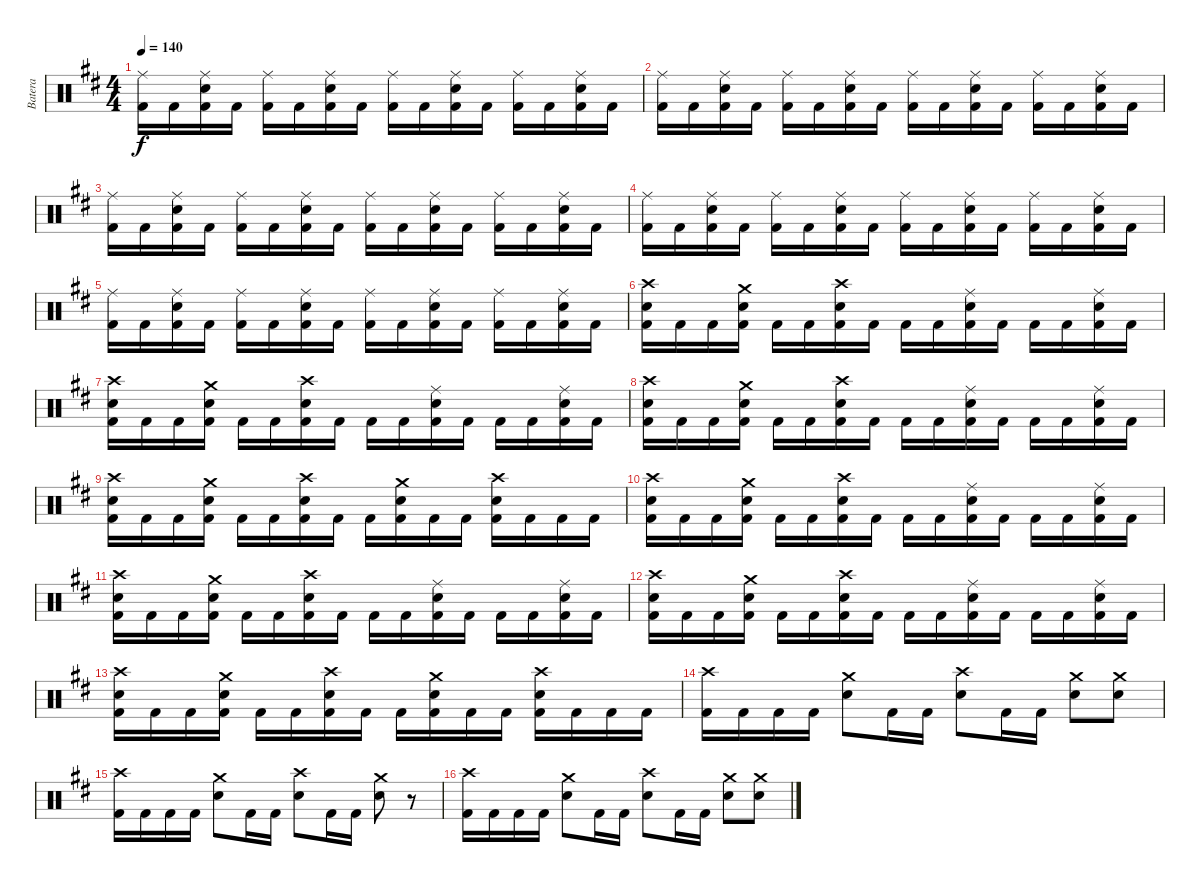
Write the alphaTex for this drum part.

\track ("Batera" "Batera") {instrument percussion}
\staff {score}
\articulation defaults
\ts (4 4)
\tempo 140
\clef neutral
\ks bminor
("Ride (middle)" "Kick (hit) 2").16{dy f} "Kick (hit) 2".16 ("Ride (middle)" "Electric Snare (hit)" "Kick (hit) 2").16 "Kick (hit) 2".16 ("Ride (middle)" "Kick (hit) 2").16 "Kick (hit) 2".16 ("Ride (middle)" "Electric Snare (hit)" "Kick (hit) 2").16 "Kick (hit) 2".16 ("Ride (middle)" "Kick (hit) 2").16 "Kick (hit) 2".16 ("Ride (middle)" "Electric Snare (hit)" "Kick (hit) 2").16 "Kick (hit) 2".16 ("Ride (middle)" "Kick (hit) 2").16 "Kick (hit) 2".16 ("Ride (middle)" "Electric Snare (hit)" "Kick (hit) 2").16 "Kick (hit) 2".16 |
("Ride (middle)" "Kick (hit) 2").16 "Kick (hit) 2".16 ("Ride (middle)" "Electric Snare (hit)" "Kick (hit) 2").16 "Kick (hit) 2".16 ("Ride (middle)" "Kick (hit) 2").16 "Kick (hit) 2".16 ("Ride (middle)" "Electric Snare (hit)" "Kick (hit) 2").16 "Kick (hit) 2".16 ("Ride (middle)" "Kick (hit) 2").16 "Kick (hit) 2".16 ("Ride (middle)" "Electric Snare (hit)" "Kick (hit) 2").16 "Kick (hit) 2".16 ("Ride (middle)" "Kick (hit) 2").16 "Kick (hit) 2".16 ("Ride (middle)" "Electric Snare (hit)" "Kick (hit) 2").16 "Kick (hit) 2".16 |
("Ride (middle)" "Kick (hit) 2").16 "Kick (hit) 2".16 ("Ride (middle)" "Electric Snare (hit)" "Kick (hit) 2").16 "Kick (hit) 2".16 ("Ride (middle)" "Kick (hit) 2").16 "Kick (hit) 2".16 ("Ride (middle)" "Electric Snare (hit)" "Kick (hit) 2").16 "Kick (hit) 2".16 ("Ride (middle)" "Kick (hit) 2").16 "Kick (hit) 2".16 ("Ride (middle)" "Electric Snare (hit)" "Kick (hit) 2").16 "Kick (hit) 2".16 ("Ride (middle)" "Kick (hit) 2").16 "Kick (hit) 2".16 ("Ride (middle)" "Electric Snare (hit)" "Kick (hit) 2").16 "Kick (hit) 2".16 |
("Ride (middle)" "Kick (hit) 2").16 "Kick (hit) 2".16 ("Ride (middle)" "Electric Snare (hit)" "Kick (hit) 2").16 "Kick (hit) 2".16 ("Ride (middle)" "Kick (hit) 2").16 "Kick (hit) 2".16 ("Ride (middle)" "Electric Snare (hit)" "Kick (hit) 2").16 "Kick (hit) 2".16 ("Ride (middle)" "Kick (hit) 2").16 "Kick (hit) 2".16 ("Ride (middle)" "Electric Snare (hit)" "Kick (hit) 2").16 "Kick (hit) 2".16 ("Ride (middle)" "Kick (hit) 2").16 "Kick (hit) 2".16 ("Ride (middle)" "Electric Snare (hit)" "Kick (hit) 2").16 "Kick (hit) 2".16 |
("Ride (middle)" "Kick (hit) 2").16 "Kick (hit) 2".16 ("Ride (middle)" "Electric Snare (hit)" "Kick (hit) 2").16 "Kick (hit) 2".16 ("Ride (middle)" "Kick (hit) 2").16 "Kick (hit) 2".16 ("Ride (middle)" "Electric Snare (hit)" "Kick (hit) 2").16 "Kick (hit) 2".16 ("Ride (middle)" "Kick (hit) 2").16 "Kick (hit) 2".16 ("Ride (middle)" "Electric Snare (hit)" "Kick (hit) 2").16 "Kick (hit) 2".16 ("Ride (middle)" "Kick (hit) 2").16 "Kick (hit) 2".16 ("Ride (middle)" "Electric Snare (hit)" "Kick (hit) 2").16 "Kick (hit) 2".16 |
("Crash high (hit)" "Electric Snare (hit)" "Kick (hit) 2").16 "Kick (hit) 2".16 "Kick (hit) 2".16 ("Crash medium (hit)" "Electric Snare (hit)" "Kick (hit) 2").16 "Kick (hit) 2".16 "Kick (hit) 2".16 ("Crash high (hit)" "Electric Snare (hit)" "Kick (hit) 2").16 "Kick (hit) 2".16 "Kick (hit) 2".16 "Kick (hit) 2".16 ("Ride (middle)" "Electric Snare (hit)" "Kick (hit) 2").16 "Kick (hit) 2".16 "Kick (hit) 2".16 "Kick (hit) 2".16 ("Ride (middle)" "Electric Snare (hit)" "Kick (hit) 2").16 "Kick (hit) 2".16 |
("Crash high (hit)" "Electric Snare (hit)" "Kick (hit) 2").16 "Kick (hit) 2".16 "Kick (hit) 2".16 ("Crash medium (hit)" "Electric Snare (hit)" "Kick (hit) 2").16 "Kick (hit) 2".16 "Kick (hit) 2".16 ("Crash high (hit)" "Electric Snare (hit)" "Kick (hit) 2").16 "Kick (hit) 2".16 "Kick (hit) 2".16 "Kick (hit) 2".16 ("Ride (middle)" "Electric Snare (hit)" "Kick (hit) 2").16 "Kick (hit) 2".16 "Kick (hit) 2".16 "Kick (hit) 2".16 ("Ride (middle)" "Electric Snare (hit)" "Kick (hit) 2").16 "Kick (hit) 2".16 |
("Crash high (hit)" "Electric Snare (hit)" "Kick (hit) 2").16 "Kick (hit) 2".16 "Kick (hit) 2".16 ("Crash medium (hit)" "Electric Snare (hit)" "Kick (hit) 2").16 "Kick (hit) 2".16 "Kick (hit) 2".16 ("Crash high (hit)" "Electric Snare (hit)" "Kick (hit) 2").16 "Kick (hit) 2".16 "Kick (hit) 2".16 "Kick (hit) 2".16 ("Ride (middle)" "Electric Snare (hit)" "Kick (hit) 2").16 "Kick (hit) 2".16 "Kick (hit) 2".16 "Kick (hit) 2".16 ("Ride (middle)" "Electric Snare (hit)" "Kick (hit) 2").16 "Kick (hit) 2".16 |
("Crash high (hit)" "Electric Snare (hit)" "Kick (hit) 2").16 "Kick (hit) 2".16 "Kick (hit) 2".16 ("Crash medium (hit)" "Electric Snare (hit)" "Kick (hit) 2").16 "Kick (hit) 2".16 "Kick (hit) 2".16 ("Crash high (hit)" "Electric Snare (hit)" "Kick (hit) 2").16 "Kick (hit) 2".16 "Kick (hit) 2".16 ("Crash medium (hit)" "Electric Snare (hit)" "Kick (hit) 2").16 "Kick (hit) 2".16 "Kick (hit) 2".16 ("Crash high (hit)" "Electric Snare (hit)" "Kick (hit) 2").16 "Kick (hit) 2".16 "Kick (hit) 2".16 "Kick (hit) 2".16 |
("Crash high (hit)" "Electric Snare (hit)" "Kick (hit) 2").16 "Kick (hit) 2".16 "Kick (hit) 2".16 ("Crash medium (hit)" "Electric Snare (hit)" "Kick (hit) 2").16 "Kick (hit) 2".16 "Kick (hit) 2".16 ("Crash high (hit)" "Electric Snare (hit)" "Kick (hit) 2").16 "Kick (hit) 2".16 "Kick (hit) 2".16 "Kick (hit) 2".16 ("Ride (middle)" "Electric Snare (hit)" "Kick (hit) 2").16 "Kick (hit) 2".16 "Kick (hit) 2".16 "Kick (hit) 2".16 ("Ride (middle)" "Electric Snare (hit)" "Kick (hit) 2").16 "Kick (hit) 2".16 |
("Crash high (hit)" "Electric Snare (hit)" "Kick (hit) 2").16 "Kick (hit) 2".16 "Kick (hit) 2".16 ("Crash medium (hit)" "Electric Snare (hit)" "Kick (hit) 2").16 "Kick (hit) 2".16 "Kick (hit) 2".16 ("Crash high (hit)" "Electric Snare (hit)" "Kick (hit) 2").16 "Kick (hit) 2".16 "Kick (hit) 2".16 "Kick (hit) 2".16 ("Ride (middle)" "Electric Snare (hit)" "Kick (hit) 2").16 "Kick (hit) 2".16 "Kick (hit) 2".16 "Kick (hit) 2".16 ("Ride (middle)" "Electric Snare (hit)" "Kick (hit) 2").16 "Kick (hit) 2".16 |
("Crash high (hit)" "Electric Snare (hit)" "Kick (hit) 2").16 "Kick (hit) 2".16 "Kick (hit) 2".16 ("Crash medium (hit)" "Electric Snare (hit)" "Kick (hit) 2").16 "Kick (hit) 2".16 "Kick (hit) 2".16 ("Crash high (hit)" "Electric Snare (hit)" "Kick (hit) 2").16 "Kick (hit) 2".16 "Kick (hit) 2".16 "Kick (hit) 2".16 ("Ride (middle)" "Electric Snare (hit)" "Kick (hit) 2").16 "Kick (hit) 2".16 "Kick (hit) 2".16 "Kick (hit) 2".16 ("Ride (middle)" "Electric Snare (hit)" "Kick (hit) 2").16 "Kick (hit) 2".16 |
("Crash high (hit)" "Electric Snare (hit)" "Kick (hit) 2").16 "Kick (hit) 2".16 "Kick (hit) 2".16 ("Crash medium (hit)" "Electric Snare (hit)" "Kick (hit) 2").16 "Kick (hit) 2".16 "Kick (hit) 2".16 ("Crash high (hit)" "Electric Snare (hit)" "Kick (hit) 2").16 "Kick (hit) 2".16 "Kick (hit) 2".16 ("Crash medium (hit)" "Electric Snare (hit)" "Kick (hit) 2").16 "Kick (hit) 2".16 "Kick (hit) 2".16 ("Crash high (hit)" "Electric Snare (hit)" "Kick (hit) 2").16 "Kick (hit) 2".16 "Kick (hit) 2".16 "Kick (hit) 2".16 |
("Crash high (hit)" "Kick (hit) 2").16 "Kick (hit) 2".16 "Kick (hit) 2".16 "Kick (hit) 2".16 ("Crash medium (hit)" "Electric Snare (hit)").8 "Kick (hit) 2".16 "Kick (hit) 2".16 ("Crash high (hit)" "Electric Snare (hit)").8 "Kick (hit) 2".16 "Kick (hit) 2".16 ("Crash medium (hit)" "Electric Snare (hit)").8 ("Crash medium (hit)" "Electric Snare (hit)").8 |
("Crash high (hit)" "Kick (hit) 2").16 "Kick (hit) 2".16 "Kick (hit) 2".16 "Kick (hit) 2".16 ("Crash medium (hit)" "Electric Snare (hit)").8 "Kick (hit) 2".16 "Kick (hit) 2".16 ("Crash high (hit)" "Electric Snare (hit)").8 "Kick (hit) 2".16 "Kick (hit) 2".16 ("Crash medium (hit)" "Electric Snare (hit)").8 r.8 |
("Crash high (hit)" "Kick (hit) 2").16 "Kick (hit) 2".16 "Kick (hit) 2".16 "Kick (hit) 2".16 ("Crash medium (hit)" "Electric Snare (hit)").8 "Kick (hit) 2".16 "Kick (hit) 2".16 ("Crash high (hit)" "Electric Snare (hit)").8 "Kick (hit) 2".16 "Kick (hit) 2".16 ("Crash medium (hit)" "Electric Snare (hit)").8 ("Crash medium (hit)" "Electric Snare (hit)").8
